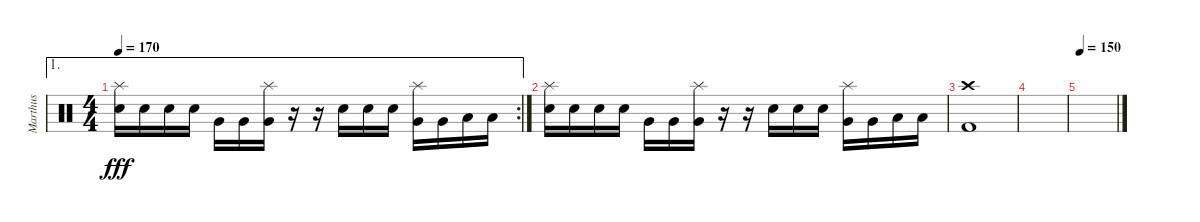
\track ("Marthus" "Marthus") {instrument percussion}
\staff {score}
\articulation defaults
\ae 1
\rc 2
\ts (4 4)
\tempo 170
\clef neutral
\ks c
("Splash (hit)" "Electric Snare (hit)").16{dy fff} "Electric Snare (hit)".16 "Electric Snare (hit)".16 "Electric Snare (hit)".16 "Very Low Tom (hit)".16 "Very Low Tom (hit)".16 ("Splash (hit)" "Very Low Tom (hit)").16 r.16 r.16 "Electric Snare (hit)".16 "Electric Snare (hit)".16 "Electric Snare (hit)".16 ("Splash (hit)" "Very Low Tom (hit)").16 "Very Low Tom (hit)".16 "Low Tom (hit)".16 "Low Tom (hit)".16 |
("Splash (hit)" "Electric Snare (hit)").16 "Electric Snare (hit)".16 "Electric Snare (hit)".16 "Electric Snare (hit)".16 "Very Low Tom (hit)".16 "Very Low Tom (hit)".16 ("Splash (hit)" "Very Low Tom (hit)").16 r.16 r.16 "Electric Snare (hit)".16 "Electric Snare (hit)".16 "Electric Snare (hit)".16 ("Splash (hit)" "Very Low Tom (hit)").16 "Very Low Tom (hit)".16 "Low Tom (hit)".16 "Low Tom (hit)".16 |
("Crash high (hit)" "Kick (hit) 2").1 |
|
\tempo 150
